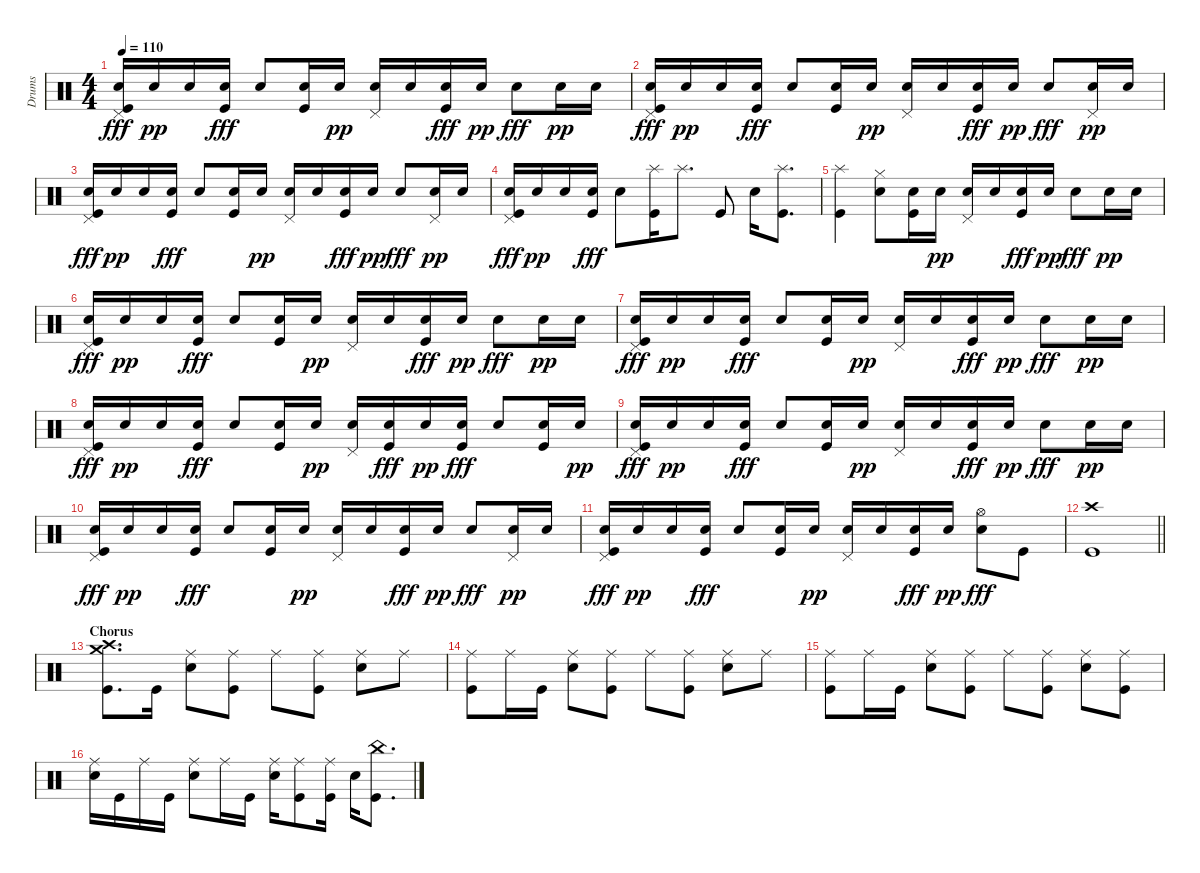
\track ("Drums" "Drums") {instrument percussion}
\staff {score}
\articulation defaults
\ts (4 4)
\tempo 110
\clef neutral
\ks c
("Pedal Hi-Hat (hit)" "Snare (hit) 2" "Kick (hit)").16{dy fff} "Snare (hit) 2".16{dy pp} "Snare (hit) 2".16 ("Snare (hit) 2" "Kick (hit)").16{dy fff} "Snare (hit) 2".8 ("Snare (hit) 2" "Kick (hit)").16 "Snare (hit) 2".16{dy pp} ("Pedal Hi-Hat (hit)" "Snare (hit) 2").16 "Snare (hit) 2".16 ("Snare (hit) 2" "Kick (hit)").16{dy fff} "Snare (hit) 2".16{dy pp} "Snare (hit) 2".8{dy fff} "Snare (hit) 2".16{dy pp} "Snare (hit) 2".16 |
("Pedal Hi-Hat (hit)" "Snare (hit) 2" "Kick (hit)").16{dy fff} "Snare (hit) 2".16{dy pp} "Snare (hit) 2".16 ("Snare (hit) 2" "Kick (hit)").16{dy fff} "Snare (hit) 2".8 ("Snare (hit) 2" "Kick (hit)").16 "Snare (hit) 2".16{dy pp} ("Pedal Hi-Hat (hit)" "Snare (hit) 2").16 "Snare (hit) 2".16 ("Snare (hit) 2" "Kick (hit)").16{dy fff} "Snare (hit) 2".16{dy pp} "Snare (hit) 2".8{dy fff} ("Pedal Hi-Hat (hit)" "Snare (hit) 2").16{dy pp} "Snare (hit) 2".16 |
("Pedal Hi-Hat (hit)" "Snare (hit) 2" "Kick (hit)").16{dy fff} "Snare (hit) 2".16{dy pp} "Snare (hit) 2".16 ("Snare (hit) 2" "Kick (hit)").16{dy fff} "Snare (hit) 2".8 ("Snare (hit) 2" "Kick (hit)").16 "Snare (hit) 2".16{dy pp} ("Pedal Hi-Hat (hit)" "Snare (hit) 2").16 "Snare (hit) 2".16 ("Snare (hit) 2" "Kick (hit)").16{dy fff} "Snare (hit) 2".16{dy pp} "Snare (hit) 2".8{dy fff} ("Pedal Hi-Hat (hit)" "Snare (hit) 2").16{dy pp} "Snare (hit) 2".16 |
("Pedal Hi-Hat (hit)" "Snare (hit) 2" "Kick (hit)").16{dy fff} "Snare (hit) 2".16{dy pp} "Snare (hit) 2".16 ("Snare (hit) 2" "Kick (hit)").16{dy fff} "Snare (hit) 2".8 ("Splash (hit)" "Kick (hit)").16 "Splash (hit)".8{d} "Kick (hit)".8 "Snare (hit) 2".16 ("Splash (hit)" "Kick (hit)").8{d} |
("Splash (hit)" "Kick (hit)").4 ("Hi-Hat (closed)" "Snare (hit) 2").8 ("Snare (hit) 2" "Kick (hit)").16 "Snare (hit) 2".16{dy pp} ("Pedal Hi-Hat (hit)" "Snare (hit) 2").16 "Snare (hit) 2".16 ("Snare (hit) 2" "Kick (hit)").16{dy fff} "Snare (hit) 2".16{dy pp} "Snare (hit) 2".8{dy fff} "Snare (hit) 2".16{dy pp} "Snare (hit) 2".16 |
("Pedal Hi-Hat (hit)" "Snare (hit) 2" "Kick (hit)").16{dy fff} "Snare (hit) 2".16{dy pp} "Snare (hit) 2".16 ("Snare (hit) 2" "Kick (hit)").16{dy fff} "Snare (hit) 2".8 ("Snare (hit) 2" "Kick (hit)").16 "Snare (hit) 2".16{dy pp} ("Pedal Hi-Hat (hit)" "Snare (hit) 2").16 "Snare (hit) 2".16 ("Snare (hit) 2" "Kick (hit)").16{dy fff} "Snare (hit) 2".16{dy pp} "Snare (hit) 2".8{dy fff} "Snare (hit) 2".16{dy pp} "Snare (hit) 2".16 |
("Pedal Hi-Hat (hit)" "Snare (hit) 2" "Kick (hit)").16{dy fff} "Snare (hit) 2".16{dy pp} "Snare (hit) 2".16 ("Snare (hit) 2" "Kick (hit)").16{dy fff} "Snare (hit) 2".8 ("Snare (hit) 2" "Kick (hit)").16 "Snare (hit) 2".16{dy pp} ("Pedal Hi-Hat (hit)" "Snare (hit) 2").16 "Snare (hit) 2".16 ("Snare (hit) 2" "Kick (hit)").16{dy fff} "Snare (hit) 2".16{dy pp} "Snare (hit) 2".8{dy fff} "Snare (hit) 2".16{dy pp} "Snare (hit) 2".16 |
("Pedal Hi-Hat (hit)" "Snare (hit) 2" "Kick (hit)").16{dy fff} "Snare (hit) 2".16{dy pp} "Snare (hit) 2".16 ("Snare (hit) 2" "Kick (hit)").16{dy fff} "Snare (hit) 2".8 ("Snare (hit) 2" "Kick (hit)").16 "Snare (hit) 2".16{dy pp} ("Pedal Hi-Hat (hit)" "Snare (hit) 2").16 ("Snare (hit) 2" "Kick (hit)").16{dy fff} "Snare (hit) 2".16{dy pp} ("Snare (hit) 2" "Kick (hit)").16{dy fff} "Snare (hit) 2".8 ("Snare (hit) 2" "Kick (hit)").16 "Snare (hit) 2".16{dy pp} |
("Pedal Hi-Hat (hit)" "Snare (hit) 2" "Kick (hit)").16{dy fff} "Snare (hit) 2".16{dy pp} "Snare (hit) 2".16 ("Snare (hit) 2" "Kick (hit)").16{dy fff} "Snare (hit) 2".8 ("Snare (hit) 2" "Kick (hit)").16 "Snare (hit) 2".16{dy pp} ("Pedal Hi-Hat (hit)" "Snare (hit) 2").16 "Snare (hit) 2".16 ("Snare (hit) 2" "Kick (hit)").16{dy fff} "Snare (hit) 2".16{dy pp} "Snare (hit) 2".8{dy fff} "Snare (hit) 2".16{dy pp} "Snare (hit) 2".16 |
("Pedal Hi-Hat (hit)" "Snare (hit) 2" "Kick (hit)").16{dy fff} "Snare (hit) 2".16{dy pp} "Snare (hit) 2".16 ("Snare (hit) 2" "Kick (hit)").16{dy fff} "Snare (hit) 2".8 ("Snare (hit) 2" "Kick (hit)").16 "Snare (hit) 2".16{dy pp} ("Pedal Hi-Hat (hit)" "Snare (hit) 2").16 "Snare (hit) 2".16 ("Snare (hit) 2" "Kick (hit)").16{dy fff} "Snare (hit) 2".16{dy pp} "Snare (hit) 2".8{dy fff} ("Pedal Hi-Hat (hit)" "Snare (hit) 2").16{dy pp} "Snare (hit) 2".16 |
("Pedal Hi-Hat (hit)" "Snare (hit) 2" "Kick (hit)").16{dy fff} "Snare (hit) 2".16{dy pp} "Snare (hit) 2".16 ("Snare (hit) 2" "Kick (hit)").16{dy fff} "Snare (hit) 2".8 ("Snare (hit) 2" "Kick (hit)").16 "Snare (hit) 2".16{dy pp} ("Pedal Hi-Hat (hit)" "Snare (hit) 2").16 "Snare (hit) 2".16 ("Snare (hit) 2" "Kick (hit)").16{dy fff} "Snare (hit) 2".16{dy pp} ("Hi-Hat (open)" "Snare (hit) 2").8{dy fff} "Kick (hit)".8 |
\barLineRight lightlight
("Crash high (hit)" "Kick (hit)").1 |
\section ("" "Chorus")
("Crash medium (hit)" "Crash high (hit)" "Kick (hit)").8{d} "Kick (hit)".16 ("Ride (middle)" "Snare (hit) 2").8 ("Ride (middle)" "Kick (hit)").8 "Ride (middle)".8 ("Ride (middle)" "Kick (hit)").8 ("Ride (middle)" "Snare (hit) 2").8 "Ride (middle)".8 |
("Ride (middle)" "Kick (hit)").8 "Ride (middle)".16 "Kick (hit)".16 ("Ride (middle)" "Snare (hit) 2").8 ("Ride (middle)" "Kick (hit)").8 "Ride (middle)".8 ("Ride (middle)" "Kick (hit)").8 ("Ride (middle)" "Snare (hit) 2").8 "Ride (middle)".8 |
("Ride (middle)" "Kick (hit)").8 "Ride (middle)".16 "Kick (hit)".16 ("Ride (middle)" "Snare (hit) 2").8 ("Ride (middle)" "Kick (hit)").8 "Ride (middle)".8 ("Ride (middle)" "Kick (hit)").8 ("Ride (middle)" "Snare (hit) 2").8 ("Ride (middle)" "Kick (hit)").8 |
("Ride (middle)" "Snare (hit) 2").16 "Kick (hit)".16 "Ride (middle)".16 "Kick (hit)".16 ("Ride (middle)" "Snare (hit) 2").8 "Ride (middle)".16 "Kick (hit)".16 ("Ride (middle)" "Snare (hit) 2").16 ("Ride (middle)" "Kick (hit)").8 ("Ride (middle)" "Kick (hit)").16 "Snare (hit) 2".16 ("China (hit)" "Kick (hit)").8{d}
